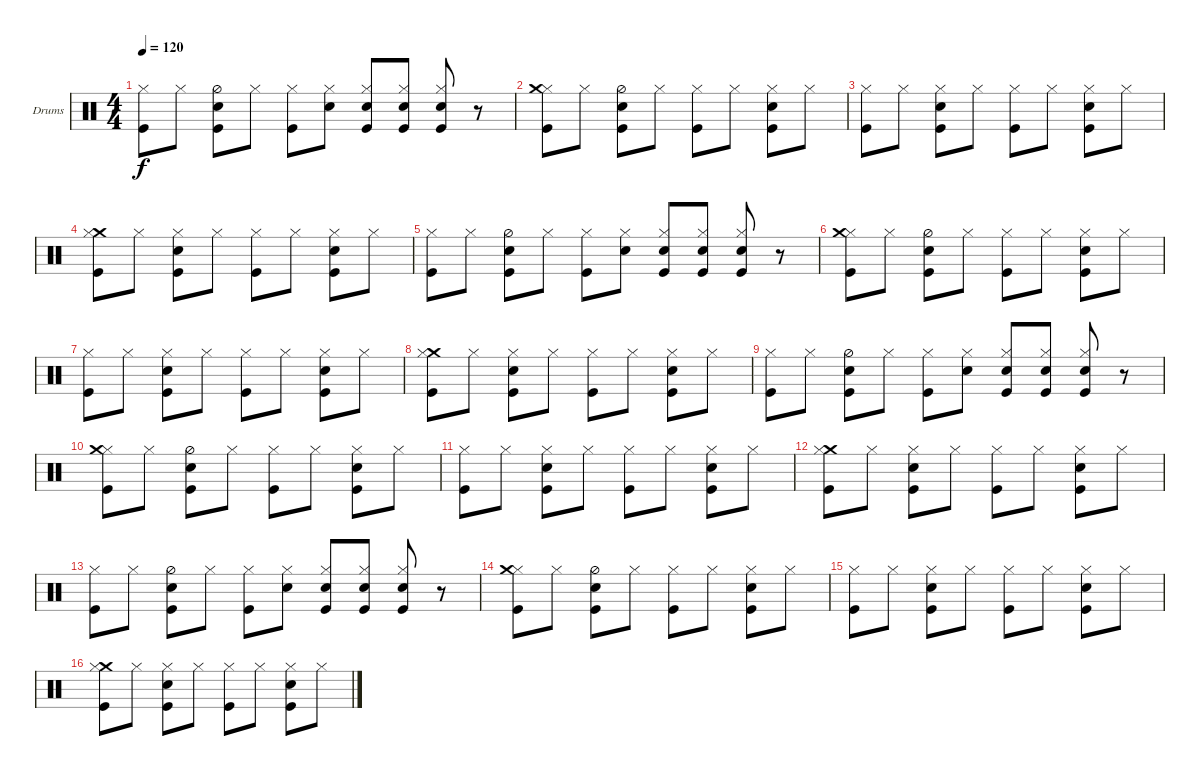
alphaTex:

\bracketExtendMode nobrackets
\firstSystemTrackNameOrientation horizontal
\otherSystemsTrackNameOrientation horizontal
\track ("Drumkit" "Drums") {instrument percussion}
\staff {score}
\articulation defaults
\ts (4 4)
\tempo 120
\clef neutral
\ks c
("Kick (hit)" "Hi-Hat (closed)").8{dy f} "Hi-Hat (closed)".8 ("Snare (hit) 2" "Hi-Hat (half)" "Kick (hit)").8 "Hi-Hat (closed)".8 ("Kick (hit)" "Hi-Hat (closed)").8 ("Hi-Hat (closed)" "Snare (hit) 2").8 ("Kick (hit)" "Snare (hit) 2" "Hi-Hat (closed)").8 ("Hi-Hat (closed)" "Snare (hit) 2" "Kick (hit)").8 ("Kick (hit)" "Hi-Hat (closed)" "Snare (hit) 2").8 r.8 |
("Kick (hit)" "Hi-Hat (closed)" "Crash medium (hit)").8 "Hi-Hat (closed)".8 ("Kick (hit)" "Hi-Hat (half)" "Snare (hit) 2").8 "Hi-Hat (closed)".8 ("Kick (hit)" "Hi-Hat (closed)").8 "Hi-Hat (closed)".8 ("Kick (hit)" "Snare (hit) 2" "Hi-Hat (closed)").8 "Hi-Hat (closed)".8 |
("Kick (hit)" "Hi-Hat (closed)").8 "Hi-Hat (closed)".8 ("Kick (hit)" "Snare (hit) 2" "Hi-Hat (closed)").8 "Hi-Hat (closed)".8 ("Kick (hit)" "Hi-Hat (closed)").8 "Hi-Hat (closed)".8 ("Kick (hit)" "Snare (hit) 2" "Hi-Hat (closed)").8 "Hi-Hat (closed)".8 |
("Kick (hit)" "Crash medium (hit)" "Hi-Hat (closed)").8 "Hi-Hat (closed)".8 ("Kick (hit)" "Snare (hit) 2" "Hi-Hat (closed)").8 "Hi-Hat (closed)".8 ("Kick (hit)" "Hi-Hat (closed)").8 "Hi-Hat (closed)".8 ("Kick (hit)" "Snare (hit) 2" "Hi-Hat (closed)").8 "Hi-Hat (closed)".8 |
("Kick (hit)" "Hi-Hat (closed)").8 "Hi-Hat (closed)".8 ("Snare (hit) 2" "Hi-Hat (half)" "Kick (hit)").8 "Hi-Hat (closed)".8 ("Kick (hit)" "Hi-Hat (closed)").8 ("Hi-Hat (closed)" "Snare (hit) 2").8 ("Kick (hit)" "Snare (hit) 2" "Hi-Hat (closed)").8 ("Hi-Hat (closed)" "Snare (hit) 2" "Kick (hit)").8 ("Kick (hit)" "Hi-Hat (closed)" "Snare (hit) 2").8 r.8 |
("Kick (hit)" "Hi-Hat (closed)" "Crash medium (hit)").8 "Hi-Hat (closed)".8 ("Kick (hit)" "Hi-Hat (half)" "Snare (hit) 2").8 "Hi-Hat (closed)".8 ("Kick (hit)" "Hi-Hat (closed)").8 "Hi-Hat (closed)".8 ("Kick (hit)" "Snare (hit) 2" "Hi-Hat (closed)").8 "Hi-Hat (closed)".8 |
("Kick (hit)" "Hi-Hat (closed)").8 "Hi-Hat (closed)".8 ("Kick (hit)" "Snare (hit) 2" "Hi-Hat (closed)").8 "Hi-Hat (closed)".8 ("Kick (hit)" "Hi-Hat (closed)").8 "Hi-Hat (closed)".8 ("Kick (hit)" "Snare (hit) 2" "Hi-Hat (closed)").8 "Hi-Hat (closed)".8 |
("Kick (hit)" "Crash medium (hit)" "Hi-Hat (closed)").8 "Hi-Hat (closed)".8 ("Kick (hit)" "Snare (hit) 2" "Hi-Hat (closed)").8 "Hi-Hat (closed)".8 ("Kick (hit)" "Hi-Hat (closed)").8 "Hi-Hat (closed)".8 ("Kick (hit)" "Snare (hit) 2" "Hi-Hat (closed)").8 "Hi-Hat (closed)".8 |
("Kick (hit)" "Hi-Hat (closed)").8 "Hi-Hat (closed)".8 ("Snare (hit) 2" "Hi-Hat (half)" "Kick (hit)").8 "Hi-Hat (closed)".8 ("Kick (hit)" "Hi-Hat (closed)").8 ("Hi-Hat (closed)" "Snare (hit) 2").8 ("Kick (hit)" "Snare (hit) 2" "Hi-Hat (closed)").8 ("Hi-Hat (closed)" "Snare (hit) 2" "Kick (hit)").8 ("Kick (hit)" "Hi-Hat (closed)" "Snare (hit) 2").8 r.8 |
("Kick (hit)" "Hi-Hat (closed)" "Crash medium (hit)").8 "Hi-Hat (closed)".8 ("Kick (hit)" "Hi-Hat (half)" "Snare (hit) 2").8 "Hi-Hat (closed)".8 ("Kick (hit)" "Hi-Hat (closed)").8 "Hi-Hat (closed)".8 ("Kick (hit)" "Snare (hit) 2" "Hi-Hat (closed)").8 "Hi-Hat (closed)".8 |
("Kick (hit)" "Hi-Hat (closed)").8 "Hi-Hat (closed)".8 ("Kick (hit)" "Snare (hit) 2" "Hi-Hat (closed)").8 "Hi-Hat (closed)".8 ("Kick (hit)" "Hi-Hat (closed)").8 "Hi-Hat (closed)".8 ("Kick (hit)" "Snare (hit) 2" "Hi-Hat (closed)").8 "Hi-Hat (closed)".8 |
("Kick (hit)" "Crash medium (hit)" "Hi-Hat (closed)").8 "Hi-Hat (closed)".8 ("Kick (hit)" "Snare (hit) 2" "Hi-Hat (closed)").8 "Hi-Hat (closed)".8 ("Kick (hit)" "Hi-Hat (closed)").8 "Hi-Hat (closed)".8 ("Kick (hit)" "Snare (hit) 2" "Hi-Hat (closed)").8 "Hi-Hat (closed)".8 |
("Kick (hit)" "Hi-Hat (closed)").8 "Hi-Hat (closed)".8 ("Snare (hit) 2" "Hi-Hat (half)" "Kick (hit)").8 "Hi-Hat (closed)".8 ("Kick (hit)" "Hi-Hat (closed)").8 ("Hi-Hat (closed)" "Snare (hit) 2").8 ("Kick (hit)" "Snare (hit) 2" "Hi-Hat (closed)").8 ("Hi-Hat (closed)" "Snare (hit) 2" "Kick (hit)").8 ("Kick (hit)" "Hi-Hat (closed)" "Snare (hit) 2").8 r.8 |
("Kick (hit)" "Hi-Hat (closed)" "Crash medium (hit)").8 "Hi-Hat (closed)".8 ("Kick (hit)" "Hi-Hat (half)" "Snare (hit) 2").8 "Hi-Hat (closed)".8 ("Kick (hit)" "Hi-Hat (closed)").8 "Hi-Hat (closed)".8 ("Kick (hit)" "Snare (hit) 2" "Hi-Hat (closed)").8 "Hi-Hat (closed)".8 |
("Kick (hit)" "Hi-Hat (closed)").8 "Hi-Hat (closed)".8 ("Kick (hit)" "Snare (hit) 2" "Hi-Hat (closed)").8 "Hi-Hat (closed)".8 ("Kick (hit)" "Hi-Hat (closed)").8 "Hi-Hat (closed)".8 ("Kick (hit)" "Snare (hit) 2" "Hi-Hat (closed)").8 "Hi-Hat (closed)".8 |
("Kick (hit)" "Crash medium (hit)" "Hi-Hat (closed)").8 "Hi-Hat (closed)".8 ("Kick (hit)" "Snare (hit) 2" "Hi-Hat (closed)").8 "Hi-Hat (closed)".8 ("Kick (hit)" "Hi-Hat (closed)").8 "Hi-Hat (closed)".8 ("Kick (hit)" "Snare (hit) 2" "Hi-Hat (closed)").8 "Hi-Hat (closed)".8
